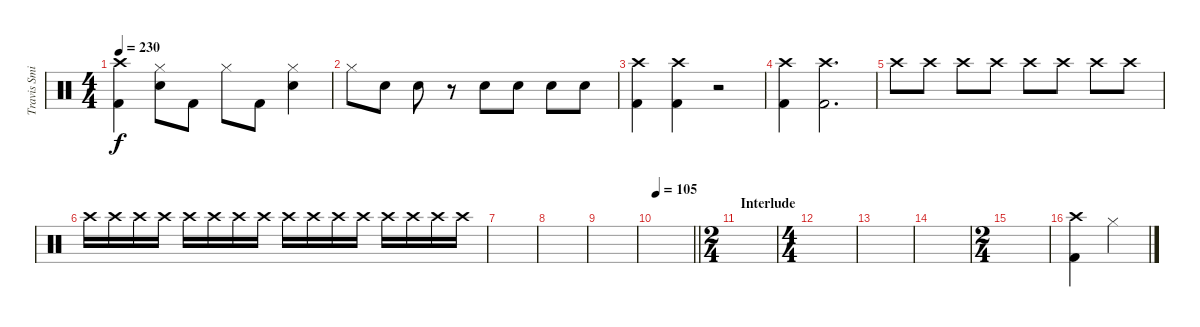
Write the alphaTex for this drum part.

\track ("Travis Smith (Drums)" "Travis Smi") {instrument percussion}
\staff {score}
\articulation defaults
\ts (4 4)
\tempo 230
\clef neutral
\ks c
("Crash high (hit)" "Kick (hit) 2").4{dy f} ("Hi-Hat (closed)" "Electric Snare (hit)").8 "Kick (hit) 2".8 "Hi-Hat (closed)".8 "Kick (hit) 2".8 ("Hi-Hat (closed)" "Electric Snare (hit)").4 |
"Hi-Hat (closed)".8 "Electric Snare (hit)".8 "Electric Snare (hit)".8 r.8 "Electric Snare (hit)".8 "Electric Snare (hit)".8 "Electric Snare (hit)".8 "Electric Snare (hit)".8 |
("Crash high (hit)" "Kick (hit) 2").4 ("Crash high (hit)" "Kick (hit) 2").4 r.2 |
("Crash high (hit)" "Kick (hit) 2").4 ("Crash high (hit)" "Kick (hit) 2").2{d} |
"Crash high (hit)".8 "Crash high (hit)".8 "Crash high (hit)".8 "Crash high (hit)".8 "Crash high (hit)".8 "Crash high (hit)".8 "Crash high (hit)".8 "Crash high (hit)".8 |
"Crash high (hit)".16 "Crash high (hit)".16 "Crash high (hit)".16 "Crash high (hit)".16 "Crash high (hit)".16 "Crash high (hit)".16 "Crash high (hit)".16 "Crash high (hit)".16 "Crash high (hit)".16 "Crash high (hit)".16 "Crash high (hit)".16 "Crash high (hit)".16 "Crash high (hit)".16 "Crash high (hit)".16 "Crash high (hit)".16 "Crash high (hit)".16 |
|
|
|
\tempo 105
\barLineRight lightlight
|
\ts (2 4)
\section ("" "Interlude")
|
\ts (4 4)
|
|
|
\ts (2 4)
|
("Crash high (hit)" "Kick (hit) 2").4 "Hi-Hat (closed)".4
